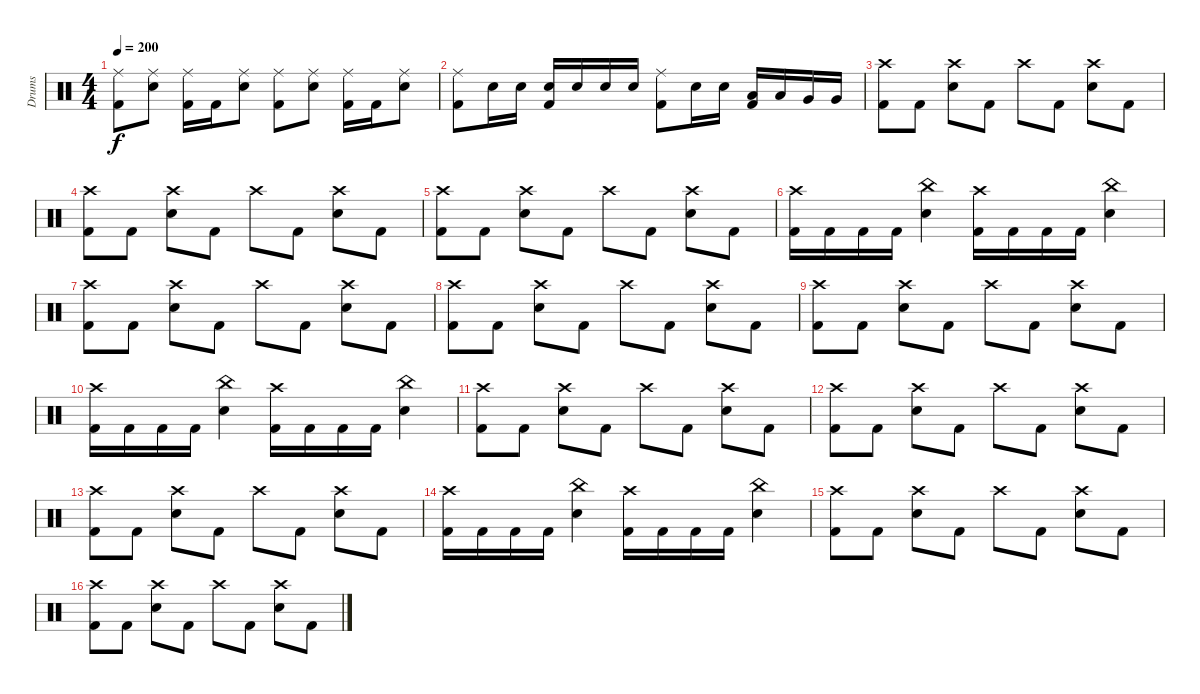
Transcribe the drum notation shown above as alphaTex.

\track ("Drums" "Drums") {instrument percussion}
\staff {score}
\articulation defaults
\ts (4 4)
\tempo 200
\clef neutral
\ks c
("Ride (middle)" "Kick (hit) 2").8{dy f} ("Ride (middle)" "Electric Snare (hit)").8 ("Ride (middle)" "Kick (hit) 2").16 "Kick (hit) 2".16 ("Ride (middle)" "Electric Snare (hit)").8 ("Ride (middle)" "Kick (hit) 2").8 ("Ride (middle)" "Electric Snare (hit)").8 ("Ride (middle)" "Kick (hit) 2").16 "Kick (hit) 2".16 ("Ride (middle)" "Electric Snare (hit)").8 |
("Ride (middle)" "Kick (hit) 2").8 "Electric Snare (hit)".16 "Electric Snare (hit)".16 ("Electric Snare (hit)" "Kick (hit) 2").16 "Electric Snare (hit)".16 "Electric Snare (hit)".16 "Electric Snare (hit)".16 ("Ride (middle)" "Kick (hit) 2").8 "Electric Snare (hit)".16 "Electric Snare (hit)".16 ("Low Tom (hit)" "Kick (hit) 2").16 "Low Tom (hit)".16 "Very Low Tom (hit)".16 "Very Low Tom (hit)".16 |
("Crash high (hit)" "Kick (hit) 2").8 "Kick (hit) 2".8 ("Crash high (hit)" "Electric Snare (hit)").8 "Kick (hit) 2".8 "Crash high (hit)".8 "Kick (hit) 2".8 ("Crash high (hit)" "Electric Snare (hit)").8 "Kick (hit) 2".8 |
("Crash high (hit)" "Kick (hit) 2").8 "Kick (hit) 2".8 ("Crash high (hit)" "Electric Snare (hit)").8 "Kick (hit) 2".8 "Crash high (hit)".8 "Kick (hit) 2".8 ("Crash high (hit)" "Electric Snare (hit)").8 "Kick (hit) 2".8 |
("Crash high (hit)" "Kick (hit) 2").8 "Kick (hit) 2".8 ("Crash high (hit)" "Electric Snare (hit)").8 "Kick (hit) 2".8 "Crash high (hit)".8 "Kick (hit) 2".8 ("Crash high (hit)" "Electric Snare (hit)").8 "Kick (hit) 2".8 |
("Crash high (hit)" "Kick (hit) 2").16 "Kick (hit) 2".16 "Kick (hit) 2".16 "Kick (hit) 2".16 ("China (hit)" "Electric Snare (hit)").4 ("Crash high (hit)" "Kick (hit) 2").16 "Kick (hit) 2".16 "Kick (hit) 2".16 "Kick (hit) 2".16 ("China (hit)" "Electric Snare (hit)").4 |
("Crash high (hit)" "Kick (hit) 2").8 "Kick (hit) 2".8 ("Crash high (hit)" "Electric Snare (hit)").8 "Kick (hit) 2".8 "Crash high (hit)".8 "Kick (hit) 2".8 ("Crash high (hit)" "Electric Snare (hit)").8 "Kick (hit) 2".8 |
("Crash high (hit)" "Kick (hit) 2").8 "Kick (hit) 2".8 ("Crash high (hit)" "Electric Snare (hit)").8 "Kick (hit) 2".8 "Crash high (hit)".8 "Kick (hit) 2".8 ("Crash high (hit)" "Electric Snare (hit)").8 "Kick (hit) 2".8 |
("Crash high (hit)" "Kick (hit) 2").8 "Kick (hit) 2".8 ("Crash high (hit)" "Electric Snare (hit)").8 "Kick (hit) 2".8 "Crash high (hit)".8 "Kick (hit) 2".8 ("Crash high (hit)" "Electric Snare (hit)").8 "Kick (hit) 2".8 |
("Crash high (hit)" "Kick (hit) 2").16 "Kick (hit) 2".16 "Kick (hit) 2".16 "Kick (hit) 2".16 ("China (hit)" "Electric Snare (hit)").4 ("Crash high (hit)" "Kick (hit) 2").16 "Kick (hit) 2".16 "Kick (hit) 2".16 "Kick (hit) 2".16 ("China (hit)" "Electric Snare (hit)").4 |
("Crash high (hit)" "Kick (hit) 2").8 "Kick (hit) 2".8 ("Crash high (hit)" "Electric Snare (hit)").8 "Kick (hit) 2".8 "Crash high (hit)".8 "Kick (hit) 2".8 ("Crash high (hit)" "Electric Snare (hit)").8 "Kick (hit) 2".8 |
("Crash high (hit)" "Kick (hit) 2").8 "Kick (hit) 2".8 ("Crash high (hit)" "Electric Snare (hit)").8 "Kick (hit) 2".8 "Crash high (hit)".8 "Kick (hit) 2".8 ("Crash high (hit)" "Electric Snare (hit)").8 "Kick (hit) 2".8 |
("Crash high (hit)" "Kick (hit) 2").8 "Kick (hit) 2".8 ("Crash high (hit)" "Electric Snare (hit)").8 "Kick (hit) 2".8 "Crash high (hit)".8 "Kick (hit) 2".8 ("Crash high (hit)" "Electric Snare (hit)").8 "Kick (hit) 2".8 |
("Crash high (hit)" "Kick (hit) 2").16 "Kick (hit) 2".16 "Kick (hit) 2".16 "Kick (hit) 2".16 ("China (hit)" "Electric Snare (hit)").4 ("Crash high (hit)" "Kick (hit) 2").16 "Kick (hit) 2".16 "Kick (hit) 2".16 "Kick (hit) 2".16 ("China (hit)" "Electric Snare (hit)").4 |
("Crash high (hit)" "Kick (hit) 2").8 "Kick (hit) 2".8 ("Crash high (hit)" "Electric Snare (hit)").8 "Kick (hit) 2".8 "Crash high (hit)".8 "Kick (hit) 2".8 ("Crash high (hit)" "Electric Snare (hit)").8 "Kick (hit) 2".8 |
("Crash high (hit)" "Kick (hit) 2").8 "Kick (hit) 2".8 ("Crash high (hit)" "Electric Snare (hit)").8 "Kick (hit) 2".8 "Crash high (hit)".8 "Kick (hit) 2".8 ("Crash high (hit)" "Electric Snare (hit)").8 "Kick (hit) 2".8
